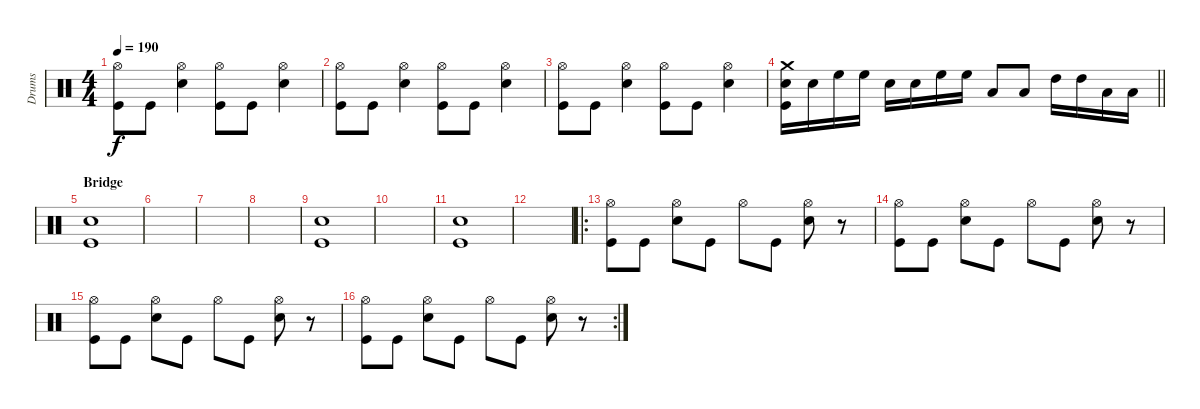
\track ("Drums" "Drums") {instrument percussion}
\staff {score}
\articulation defaults
\ts (4 4)
\tempo 190
\clef neutral
\ks c
("Hi-Hat (open)" "Kick (hit)").8{dy f} "Kick (hit)".8 ("Hi-Hat (open)" "Snare (hit) 2").4 ("Hi-Hat (open)" "Kick (hit)").8 "Kick (hit)".8 ("Hi-Hat (open)" "Snare (hit) 2").4 |
("Hi-Hat (open)" "Kick (hit)").8 "Kick (hit)".8 ("Hi-Hat (open)" "Snare (hit) 2").4 ("Hi-Hat (open)" "Kick (hit)").8 "Kick (hit)".8 ("Hi-Hat (open)" "Snare (hit) 2").4 |
("Hi-Hat (open)" "Kick (hit)").8 "Kick (hit)".8 ("Hi-Hat (open)" "Snare (hit) 2").4 ("Hi-Hat (open)" "Kick (hit)").8 "Kick (hit)".8 ("Hi-Hat (open)" "Snare (hit) 2").4 |
\barLineRight lightlight
("Crash medium (hit)" "Snare (hit) 2" "Kick (hit)").16 "Snare (hit) 2".16 "High Floor Tom (hit)".16 "High Floor Tom (hit)".16 "Snare (hit) 2".16 "Snare (hit) 2".16 "High Floor Tom (hit)".16 "High Floor Tom (hit)".16 "Low Floor Tom (hit)".8 "Low Floor Tom (hit)".8 "High Tom (hit)".16 "High Tom (hit)".16 "Low Tom (hit)".16 "Low Tom (hit)".16 |
\section ("" "Bridge")
("Snare (hit) 2" "Kick (hit)").1 |
|
|
|
("Snare (hit) 2" "Kick (hit)").1 |
|
("Snare (hit) 2" "Kick (hit)").1 |
|
\ro
("Hi-Hat (open)" "Kick (hit)").8 "Kick (hit)".8 ("Hi-Hat (open)" "Snare (hit) 2").8 "Kick (hit)".8 "Hi-Hat (open)".8 "Kick (hit)".8 ("Hi-Hat (open)" "Snare (hit) 2").8 r.8 |
("Hi-Hat (open)" "Kick (hit)").8 "Kick (hit)".8 ("Hi-Hat (open)" "Snare (hit) 2").8 "Kick (hit)".8 "Hi-Hat (open)".8 "Kick (hit)".8 ("Hi-Hat (open)" "Snare (hit) 2").8 r.8 |
("Hi-Hat (open)" "Kick (hit)").8 "Kick (hit)".8 ("Hi-Hat (open)" "Snare (hit) 2").8 "Kick (hit)".8 "Hi-Hat (open)".8 "Kick (hit)".8 ("Hi-Hat (open)" "Snare (hit) 2").8 r.8 |
\rc 2
("Hi-Hat (open)" "Kick (hit)").8 "Kick (hit)".8 ("Hi-Hat (open)" "Snare (hit) 2").8 "Kick (hit)".8 "Hi-Hat (open)".8 "Kick (hit)".8 ("Hi-Hat (open)" "Snare (hit) 2").8 r.8
